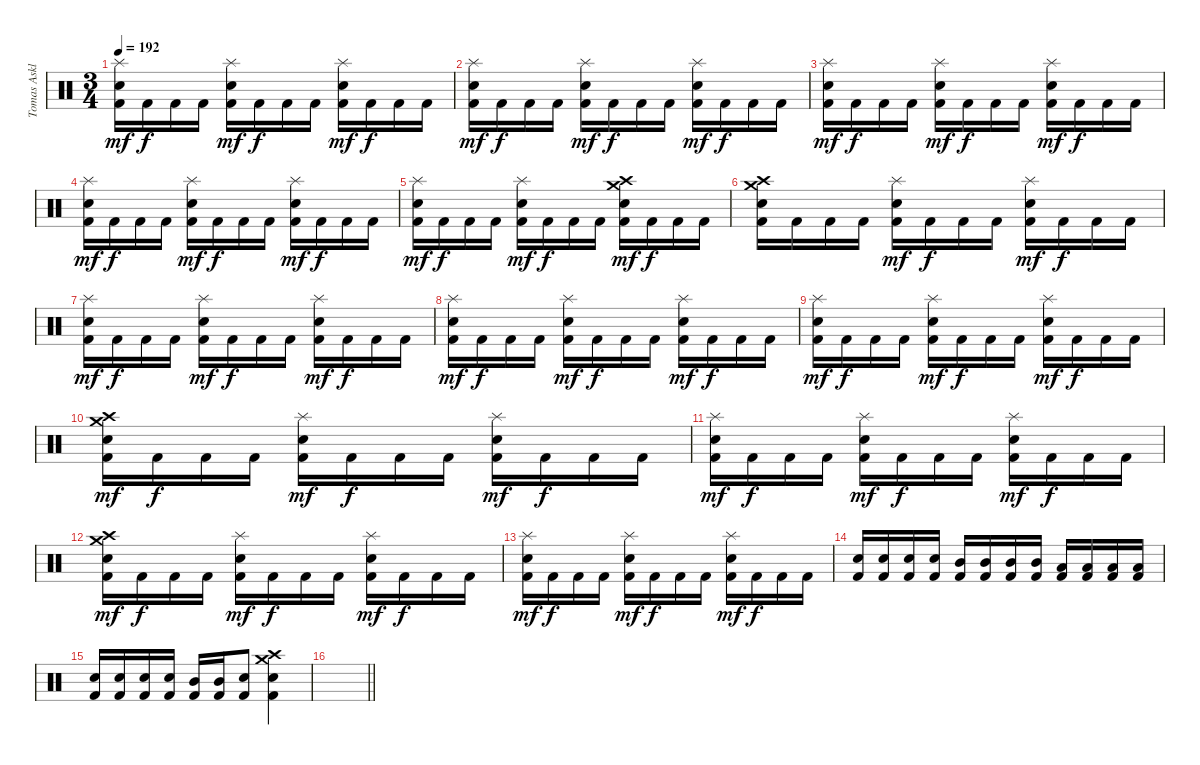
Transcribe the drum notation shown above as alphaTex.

\track ("Tomas Asklund" "Tomas Askl") {instrument percussion}
\staff {score}
\articulation defaults
\ts (3 4)
\tempo 192
\clef neutral
\ks c
("Splash (hit)" "Snare (hit) 2" "Kick (hit) 2").16{dy mf} "Kick (hit) 2".16{dy f} "Kick (hit) 2".16 "Kick (hit) 2".16 ("Splash (hit)" "Snare (hit) 2" "Kick (hit) 2").16{dy mf} "Kick (hit) 2".16{dy f} "Kick (hit) 2".16 "Kick (hit) 2".16 ("Splash (hit)" "Snare (hit) 2" "Kick (hit) 2").16{dy mf} "Kick (hit) 2".16{dy f} "Kick (hit) 2".16 "Kick (hit) 2".16 |
("Splash (hit)" "Snare (hit) 2" "Kick (hit) 2").16{dy mf} "Kick (hit) 2".16{dy f} "Kick (hit) 2".16 "Kick (hit) 2".16 ("Splash (hit)" "Snare (hit) 2" "Kick (hit) 2").16{dy mf} "Kick (hit) 2".16{dy f} "Kick (hit) 2".16 "Kick (hit) 2".16 ("Splash (hit)" "Snare (hit) 2" "Kick (hit) 2").16{dy mf} "Kick (hit) 2".16{dy f} "Kick (hit) 2".16 "Kick (hit) 2".16 |
("Splash (hit)" "Snare (hit) 2" "Kick (hit) 2").16{dy mf} "Kick (hit) 2".16{dy f} "Kick (hit) 2".16 "Kick (hit) 2".16 ("Splash (hit)" "Snare (hit) 2" "Kick (hit) 2").16{dy mf} "Kick (hit) 2".16{dy f} "Kick (hit) 2".16 "Kick (hit) 2".16 ("Splash (hit)" "Snare (hit) 2" "Kick (hit) 2").16{dy mf} "Kick (hit) 2".16{dy f} "Kick (hit) 2".16 "Kick (hit) 2".16 |
("Splash (hit)" "Snare (hit) 2" "Kick (hit) 2").16{dy mf} "Kick (hit) 2".16{dy f} "Kick (hit) 2".16 "Kick (hit) 2".16 ("Splash (hit)" "Snare (hit) 2" "Kick (hit) 2").16{dy mf} "Kick (hit) 2".16{dy f} "Kick (hit) 2".16 "Kick (hit) 2".16 ("Splash (hit)" "Snare (hit) 2" "Kick (hit) 2").16{dy mf} "Kick (hit) 2".16{dy f} "Kick (hit) 2".16 "Kick (hit) 2".16 |
("Splash (hit)" "Snare (hit) 2" "Kick (hit) 2").16{dy mf} "Kick (hit) 2".16{dy f} "Kick (hit) 2".16 "Kick (hit) 2".16 ("Splash (hit)" "Snare (hit) 2" "Kick (hit) 2").16{dy mf} "Kick (hit) 2".16{dy f} "Kick (hit) 2".16 "Kick (hit) 2".16 ("Crash medium (hit)" "Crash high (hit)" "Snare (hit) 2" "Kick (hit) 2").16{dy mf} "Kick (hit) 2".16{dy f} "Kick (hit) 2".16 "Kick (hit) 2".16 |
("Crash high (hit)" "Crash medium (hit)" "Snare (hit) 2" "Kick (hit) 2").16 "Kick (hit) 2".16 "Kick (hit) 2".16 "Kick (hit) 2".16 ("Splash (hit)" "Snare (hit) 2" "Kick (hit) 2").16{dy mf} "Kick (hit) 2".16{dy f} "Kick (hit) 2".16 "Kick (hit) 2".16 ("Splash (hit)" "Snare (hit) 2" "Kick (hit) 2").16{dy mf} "Kick (hit) 2".16{dy f} "Kick (hit) 2".16 "Kick (hit) 2".16 |
("Splash (hit)" "Snare (hit) 2" "Kick (hit) 2").16{dy mf} "Kick (hit) 2".16{dy f} "Kick (hit) 2".16 "Kick (hit) 2".16 ("Splash (hit)" "Snare (hit) 2" "Kick (hit) 2").16{dy mf} "Kick (hit) 2".16{dy f} "Kick (hit) 2".16 "Kick (hit) 2".16 ("Splash (hit)" "Snare (hit) 2" "Kick (hit) 2").16{dy mf} "Kick (hit) 2".16{dy f} "Kick (hit) 2".16 "Kick (hit) 2".16 |
("Splash (hit)" "Snare (hit) 2" "Kick (hit) 2").16{dy mf} "Kick (hit) 2".16{dy f} "Kick (hit) 2".16 "Kick (hit) 2".16 ("Splash (hit)" "Snare (hit) 2" "Kick (hit) 2").16{dy mf} "Kick (hit) 2".16{dy f} "Kick (hit) 2".16 "Kick (hit) 2".16 ("Splash (hit)" "Snare (hit) 2" "Kick (hit) 2").16{dy mf} "Kick (hit) 2".16{dy f} "Kick (hit) 2".16 "Kick (hit) 2".16 |
("Splash (hit)" "Snare (hit) 2" "Kick (hit) 2").16{dy mf} "Kick (hit) 2".16{dy f} "Kick (hit) 2".16 "Kick (hit) 2".16 ("Splash (hit)" "Snare (hit) 2" "Kick (hit) 2").16{dy mf} "Kick (hit) 2".16{dy f} "Kick (hit) 2".16 "Kick (hit) 2".16 ("Splash (hit)" "Snare (hit) 2" "Kick (hit) 2").16{dy mf} "Kick (hit) 2".16{dy f} "Kick (hit) 2".16 "Kick (hit) 2".16 |
("Crash medium (hit)" "Crash high (hit)" "Snare (hit) 2" "Kick (hit) 2").16{dy mf} "Kick (hit) 2".16{dy f} "Kick (hit) 2".16 "Kick (hit) 2".16 ("Splash (hit)" "Snare (hit) 2" "Kick (hit) 2").16{dy mf} "Kick (hit) 2".16{dy f} "Kick (hit) 2".16 "Kick (hit) 2".16 ("Splash (hit)" "Snare (hit) 2" "Kick (hit) 2").16{dy mf} "Kick (hit) 2".16{dy f} "Kick (hit) 2".16 "Kick (hit) 2".16 |
("Splash (hit)" "Snare (hit) 2" "Kick (hit) 2").16{dy mf} "Kick (hit) 2".16{dy f} "Kick (hit) 2".16 "Kick (hit) 2".16 ("Splash (hit)" "Snare (hit) 2" "Kick (hit) 2").16{dy mf} "Kick (hit) 2".16{dy f} "Kick (hit) 2".16 "Kick (hit) 2".16 ("Splash (hit)" "Snare (hit) 2" "Kick (hit) 2").16{dy mf} "Kick (hit) 2".16{dy f} "Kick (hit) 2".16 "Kick (hit) 2".16 |
("Crash medium (hit)" "Crash high (hit)" "Snare (hit) 2" "Kick (hit) 2").16{dy mf} "Kick (hit) 2".16{dy f} "Kick (hit) 2".16 "Kick (hit) 2".16 ("Splash (hit)" "Snare (hit) 2" "Kick (hit) 2").16{dy mf} "Kick (hit) 2".16{dy f} "Kick (hit) 2".16 "Kick (hit) 2".16 ("Splash (hit)" "Snare (hit) 2" "Kick (hit) 2").16{dy mf} "Kick (hit) 2".16{dy f} "Kick (hit) 2".16 "Kick (hit) 2".16 |
("Splash (hit)" "Snare (hit) 2" "Kick (hit) 2").16{dy mf} "Kick (hit) 2".16{dy f} "Kick (hit) 2".16 "Kick (hit) 2".16 ("Splash (hit)" "Snare (hit) 2" "Kick (hit) 2").16{dy mf} "Kick (hit) 2".16{dy f} "Kick (hit) 2".16 "Kick (hit) 2".16 ("Splash (hit)" "Snare (hit) 2" "Kick (hit) 2").16{dy mf} "Kick (hit) 2".16{dy f} "Kick (hit) 2".16 "Kick (hit) 2".16 |
("Snare (hit) 2" "Kick (hit) 2").16 ("Snare (hit) 2" "Kick (hit) 2").16 ("Snare (hit) 2" "Kick (hit) 2").16 ("Snare (hit) 2" "Kick (hit) 2").16 ("Mid Tom (hit)" "Kick (hit) 2").16 ("Mid Tom (hit)" "Kick (hit) 2").16 ("Mid Tom (hit)" "Kick (hit) 2").16 ("Mid Tom (hit)" "Kick (hit) 2").16 ("Low Tom (hit)" "Kick (hit) 2").16 ("Low Tom (hit)" "Kick (hit) 2").16 ("Low Tom (hit)" "Kick (hit) 2").16 ("Low Tom (hit)" "Kick (hit) 2").16 |
("Snare (hit) 2" "Kick (hit) 2").16 ("Snare (hit) 2" "Kick (hit) 2").16 ("Snare (hit) 2" "Kick (hit) 2").16 ("Snare (hit) 2" "Kick (hit) 2").16 ("Mid Tom (hit)" "Kick (hit) 2").16 ("Mid Tom (hit)" "Kick (hit) 2").16 ("Snare (hit) 2" "Kick (hit) 2").8 ("Crash medium (hit)" "Crash high (hit)" "Snare (hit) 2" "Kick (hit) 2").4 |
\barLineRight lightlight
